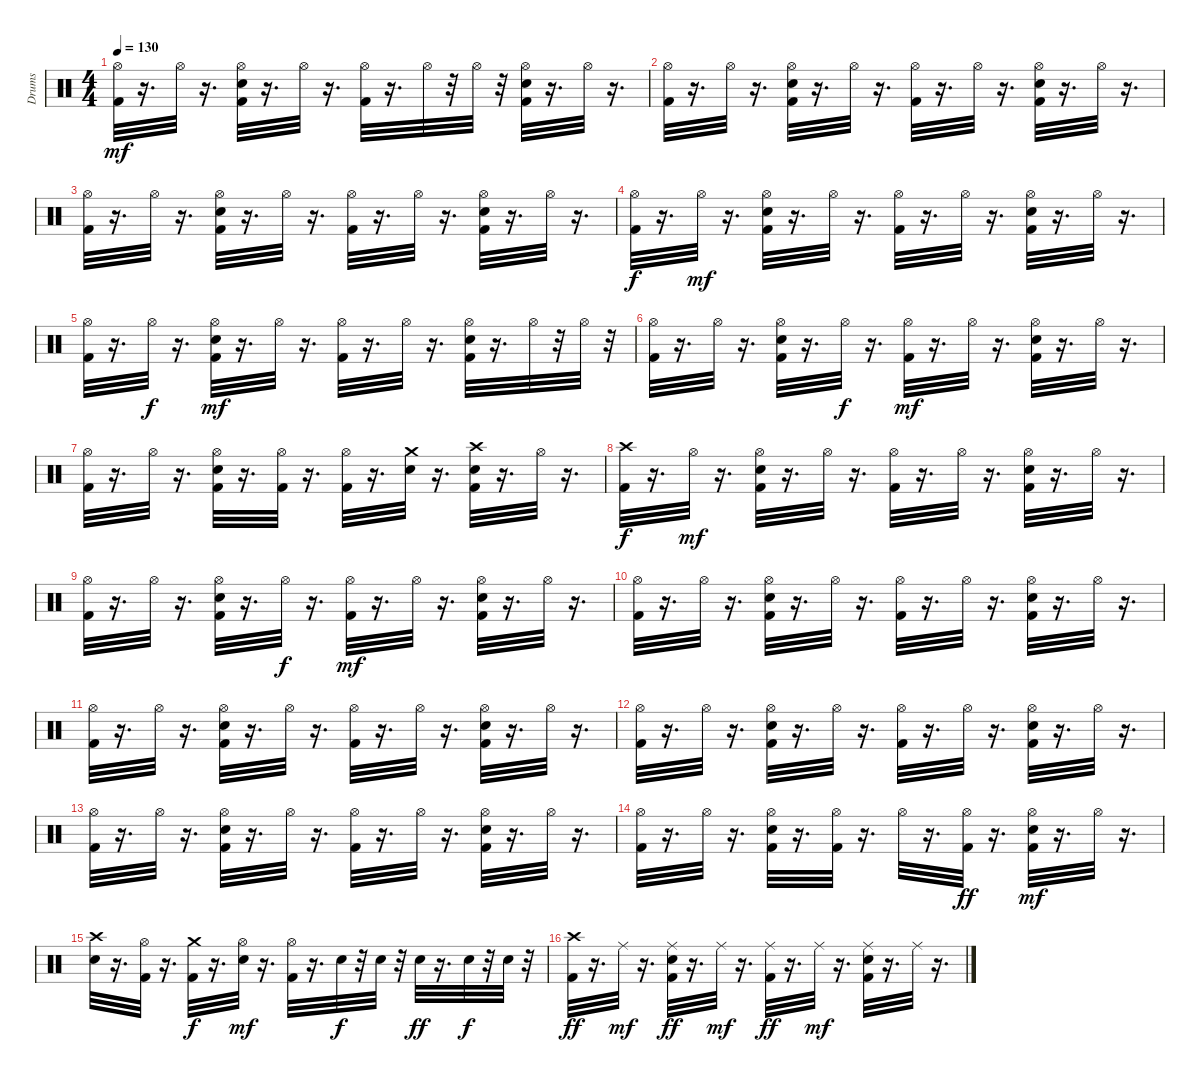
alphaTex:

\track ("Drums" "Drums") {instrument percussion}
\staff {score}
\articulation defaults
\ts (4 4)
\tempo 130
\clef neutral
\ks c
("Kick (hit) 2" "Hi-Hat (open)").32{dy mf} r.16{d} "Hi-Hat (open)".32 r.16{d} ("Kick (hit) 2" "Electric Snare (hit)" "Hi-Hat (open)").32 r.16{d} "Hi-Hat (open)".32 r.16{d} ("Kick (hit) 2" "Hi-Hat (open)").32 r.16{d} "Hi-Hat (open)".32 r.32 "Hi-Hat (open)".32 r.32 ("Kick (hit) 2" "Electric Snare (hit)" "Hi-Hat (open)").32 r.16{d} "Hi-Hat (open)".32 r.16{d} |
("Kick (hit) 2" "Hi-Hat (open)").32 r.16{d} "Hi-Hat (open)".32 r.16{d} ("Kick (hit) 2" "Electric Snare (hit)" "Hi-Hat (open)").32 r.16{d} "Hi-Hat (open)".32 r.16{d} ("Kick (hit) 2" "Hi-Hat (open)").32 r.16{d} "Hi-Hat (open)".32 r.16{d} ("Kick (hit) 2" "Electric Snare (hit)" "Hi-Hat (open)").32 r.16{d} "Hi-Hat (open)".32 r.16{d} |
("Kick (hit) 2" "Hi-Hat (open)").32 r.16{d} "Hi-Hat (open)".32 r.16{d} ("Kick (hit) 2" "Electric Snare (hit)" "Hi-Hat (open)").32 r.16{d} "Hi-Hat (open)".32 r.16{d} ("Kick (hit) 2" "Hi-Hat (open)").32 r.16{d} "Hi-Hat (open)".32 r.16{d} ("Kick (hit) 2" "Electric Snare (hit)" "Hi-Hat (open)").32 r.16{d} "Hi-Hat (open)".32 r.16{d} |
("Kick (hit) 2" "Hi-Hat (open)").32{dy f} r.16{d} "Hi-Hat (open)".32{dy mf} r.16{d} ("Kick (hit) 2" "Electric Snare (hit)" "Hi-Hat (open)").32 r.16{d} "Hi-Hat (open)".32 r.16{d} ("Kick (hit) 2" "Hi-Hat (open)").32 r.16{d} "Hi-Hat (open)".32 r.16{d} ("Kick (hit) 2" "Electric Snare (hit)" "Hi-Hat (open)").32 r.16{d} "Hi-Hat (open)".32 r.16{d} |
("Kick (hit) 2" "Hi-Hat (open)").32 r.16{d} "Hi-Hat (open)".32{dy f} r.16{d} ("Kick (hit) 2" "Electric Snare (hit)" "Hi-Hat (open)").32{dy mf} r.16{d} "Hi-Hat (open)".32 r.16{d} ("Kick (hit) 2" "Hi-Hat (open)").32 r.16{d} "Hi-Hat (open)".32 r.16{d} ("Kick (hit) 2" "Electric Snare (hit)" "Hi-Hat (open)").32 r.16{d} "Hi-Hat (open)".32 r.32 "Hi-Hat (open)".32 r.32 |
("Kick (hit) 2" "Hi-Hat (open)").32 r.16{d} "Hi-Hat (open)".32 r.16{d} ("Kick (hit) 2" "Electric Snare (hit)" "Hi-Hat (open)").32 r.16{d} "Hi-Hat (open)".32{dy f} r.16{d} ("Kick (hit) 2" "Hi-Hat (open)").32{dy mf} r.16{d} "Hi-Hat (open)".32 r.16{d} ("Kick (hit) 2" "Electric Snare (hit)" "Hi-Hat (open)").32 r.16{d} "Hi-Hat (open)".32 r.16{d} |
("Kick (hit) 2" "Hi-Hat (open)").32 r.16{d} "Hi-Hat (open)".32 r.16{d} ("Kick (hit) 2" "Electric Snare (hit)" "Hi-Hat (open)").32 r.16{d} ("Kick (hit) 2" "Hi-Hat (open)").32 r.16{d} ("Kick (hit) 2" "Hi-Hat (open)").32 r.16{d} ("Electric Snare (hit)" "Crash medium (hit)").32 r.16{d} ("Kick (hit) 2" "Electric Snare (hit)" "Crash high (hit)").32 r.16{d} "Hi-Hat (open)".32 r.16{d} |
("Kick (hit) 2" "Crash high (hit)").32{dy f} r.16{d} "Hi-Hat (open)".32{dy mf} r.16{d} ("Kick (hit) 2" "Electric Snare (hit)" "Hi-Hat (open)").32 r.16{d} "Hi-Hat (open)".32 r.16{d} ("Kick (hit) 2" "Hi-Hat (open)").32 r.16{d} "Hi-Hat (open)".32 r.16{d} ("Kick (hit) 2" "Electric Snare (hit)" "Hi-Hat (open)").32 r.16{d} "Hi-Hat (open)".32 r.16{d} |
("Kick (hit) 2" "Hi-Hat (open)").32 r.16{d} "Hi-Hat (open)".32 r.16{d} ("Kick (hit) 2" "Electric Snare (hit)" "Hi-Hat (open)").32 r.16{d} "Hi-Hat (open)".32{dy f} r.16{d} ("Kick (hit) 2" "Hi-Hat (open)").32{dy mf} r.16{d} "Hi-Hat (open)".32 r.16{d} ("Kick (hit) 2" "Electric Snare (hit)" "Hi-Hat (open)").32 r.16{d} "Hi-Hat (open)".32 r.16{d} |
("Kick (hit) 2" "Hi-Hat (open)").32 r.16{d} "Hi-Hat (open)".32 r.16{d} ("Kick (hit) 2" "Electric Snare (hit)" "Hi-Hat (open)").32 r.16{d} "Hi-Hat (open)".32 r.16{d} ("Kick (hit) 2" "Hi-Hat (open)").32 r.16{d} "Hi-Hat (open)".32 r.16{d} ("Kick (hit) 2" "Electric Snare (hit)" "Hi-Hat (open)").32 r.16{d} "Hi-Hat (open)".32 r.16{d} |
("Kick (hit) 2" "Hi-Hat (open)").32 r.16{d} "Hi-Hat (open)".32 r.16{d} ("Kick (hit) 2" "Electric Snare (hit)" "Hi-Hat (open)").32 r.16{d} "Hi-Hat (open)".32 r.16{d} ("Kick (hit) 2" "Hi-Hat (open)").32 r.16{d} "Hi-Hat (open)".32 r.16{d} ("Kick (hit) 2" "Electric Snare (hit)" "Hi-Hat (open)").32 r.16{d} "Hi-Hat (open)".32 r.16{d} |
("Kick (hit) 2" "Hi-Hat (open)").32 r.16{d} "Hi-Hat (open)".32 r.16{d} ("Kick (hit) 2" "Electric Snare (hit)" "Hi-Hat (open)").32 r.16{d} "Hi-Hat (open)".32 r.16{d} ("Kick (hit) 2" "Hi-Hat (open)").32 r.16{d} "Hi-Hat (open)".32 r.16{d} ("Kick (hit) 2" "Electric Snare (hit)" "Hi-Hat (open)").32 r.16{d} "Hi-Hat (open)".32 r.16{d} |
("Kick (hit) 2" "Hi-Hat (open)").32 r.16{d} "Hi-Hat (open)".32 r.16{d} ("Kick (hit) 2" "Electric Snare (hit)" "Hi-Hat (open)").32 r.16{d} "Hi-Hat (open)".32 r.16{d} ("Kick (hit) 2" "Hi-Hat (open)").32 r.16{d} "Hi-Hat (open)".32 r.16{d} ("Kick (hit) 2" "Electric Snare (hit)" "Hi-Hat (open)").32 r.16{d} "Hi-Hat (open)".32 r.16{d} |
("Kick (hit) 2" "Hi-Hat (open)").32 r.16{d} "Hi-Hat (open)".32 r.16{d} ("Kick (hit) 2" "Electric Snare (hit)" "Hi-Hat (open)").32 r.16{d} ("Kick (hit) 2" "Hi-Hat (open)").32 r.16{d} "Hi-Hat (open)".32 r.16{d} ("Kick (hit) 2" "Hi-Hat (open)").32{dy ff} r.16{d} ("Kick (hit) 2" "Electric Snare (hit)" "Hi-Hat (open)").32{dy mf} r.16{d} "Hi-Hat (open)".32 r.16{d} |
("Electric Snare (hit)" "Crash high (hit)").32 r.16{d} ("Kick (hit) 2" "Hi-Hat (open)").32 r.16{d} ("Kick (hit) 2" "Crash medium (hit)").32{dy f} r.16{d} ("Electric Snare (hit)" "Hi-Hat (open)").32{dy mf} r.16{d} ("Kick (hit) 2" "Hi-Hat (open)").32 r.16{d} "Electric Snare (hit)".32{dy f} r.32 "Electric Snare (hit)".32 r.32 "Electric Snare (hit)".32{dy ff} r.16{d} "Electric Snare (hit)".32{dy f} r.32 "Electric Snare (hit)".32 r.32 |
("Kick (hit) 2" "Crash high (hit)").32{dy ff} r.16{d} "Ride (middle)".32{dy mf} r.16{d} ("Ride (middle)" "Kick (hit) 2" "Electric Snare (hit)").32{dy ff} r.16{d} "Ride (middle)".32{dy mf} r.16{d} ("Ride (middle)" "Kick (hit) 2").32{dy ff} r.16{d} "Ride (middle)".32{dy mf} r.16{d} ("Ride (middle)" "Kick (hit) 2" "Electric Snare (hit)").32 r.16{d} "Ride (middle)".32 r.16{d}
